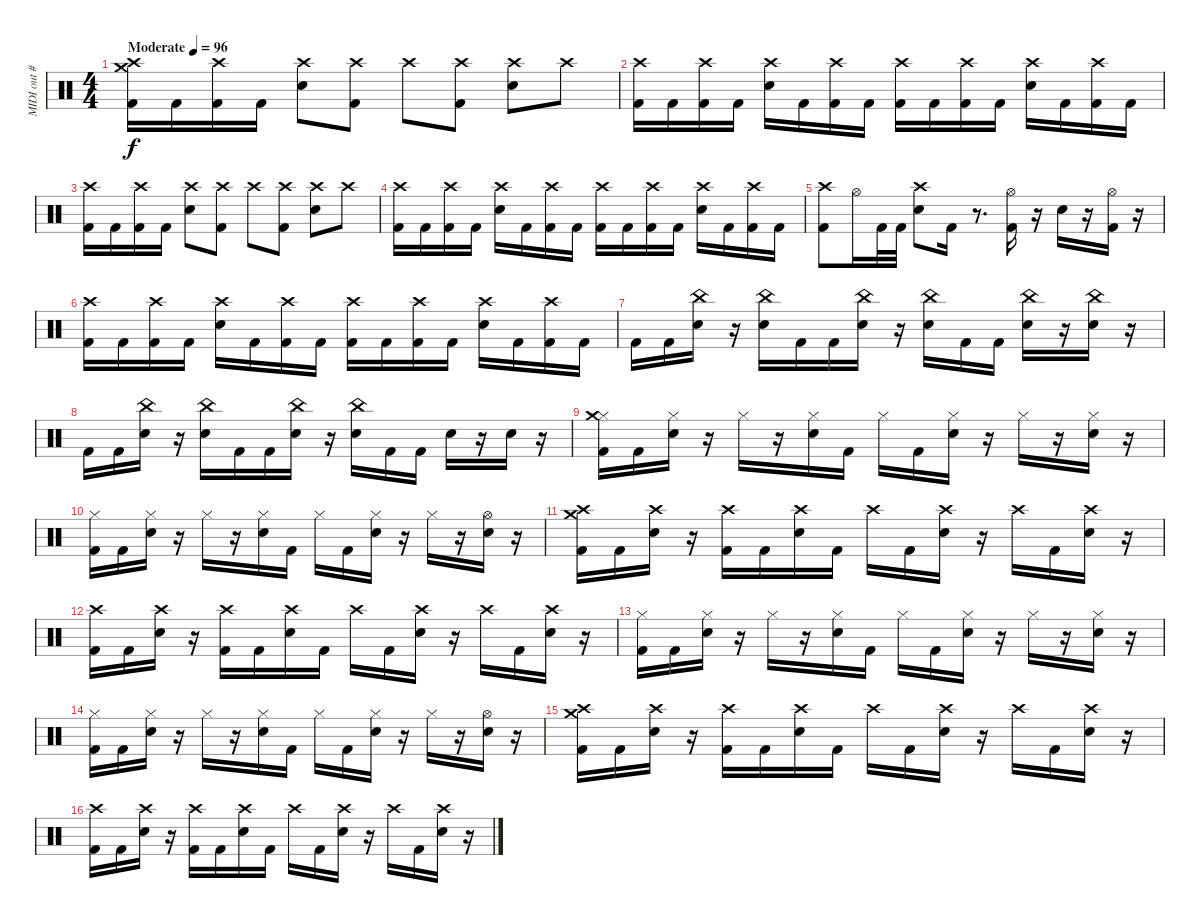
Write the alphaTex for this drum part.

\track ("MIDI out #3" "MIDI out #") {instrument percussion}
\staff {score}
\articulation defaults
\ts (4 4)
\tempo (96 "Moderate")
\clef neutral
\ks c
("Crash high (hit)" "Kick (hit) 2" "Crash medium (hit)").16{dy f} "Kick (hit) 2".16 ("Crash high (hit)" "Kick (hit) 2").16 "Kick (hit) 2".16 ("Crash high (hit)" "Snare (hit) 2").8 ("Crash high (hit)" "Kick (hit) 2").8 "Crash high (hit)".8 ("Crash high (hit)" "Kick (hit) 2").8 ("Crash high (hit)" "Snare (hit) 2").8 "Crash high (hit)".8 |
("Crash high (hit)" "Kick (hit) 2").16 "Kick (hit) 2".16 ("Crash high (hit)" "Kick (hit) 2").16 "Kick (hit) 2".16 ("Crash high (hit)" "Snare (hit) 2").16 "Kick (hit) 2".16 ("Crash high (hit)" "Kick (hit) 2").16 "Kick (hit) 2".16 ("Crash high (hit)" "Kick (hit) 2").16 "Kick (hit) 2".16 ("Crash high (hit)" "Kick (hit) 2").16 "Kick (hit) 2".16 ("Crash high (hit)" "Snare (hit) 2").16 "Kick (hit) 2".16 ("Crash high (hit)" "Kick (hit) 2").16 "Kick (hit) 2".16 |
("Crash high (hit)" "Kick (hit) 2").16 "Kick (hit) 2".16 ("Crash high (hit)" "Kick (hit) 2").16 "Kick (hit) 2".16 ("Crash high (hit)" "Snare (hit) 2").8 ("Crash high (hit)" "Kick (hit) 2").8 "Crash high (hit)".8 ("Crash high (hit)" "Kick (hit) 2").8 ("Crash high (hit)" "Snare (hit) 2").8 "Crash high (hit)".8 |
("Kick (hit) 2" "Crash high (hit)").16 "Kick (hit) 2".16 ("Crash high (hit)" "Kick (hit) 2").16 "Kick (hit) 2".16 ("Snare (hit) 2" "Crash high (hit)").16 "Kick (hit) 2".16 ("Crash high (hit)" "Kick (hit) 2").16 "Kick (hit) 2".16 ("Kick (hit) 2" "Crash high (hit)").16 "Kick (hit) 2".16 ("Crash high (hit)" "Kick (hit) 2").16 "Kick (hit) 2".16 ("Snare (hit) 2" "Crash high (hit)").16 "Kick (hit) 2".16 ("Crash high (hit)" "Kick (hit) 2").16 "Kick (hit) 2".16 |
("Crash high (hit)" "Kick (hit) 2").8 "Hi-Hat (open)".16 "Kick (hit) 2".32 "Kick (hit) 2".32 ("Crash high (hit)" "Snare (hit) 2").8 "Kick (hit) 2".16 r.8{d} ("Hi-Hat (open)" "Kick (hit) 2").16 r.16 "Snare (hit) 2".16 r.16 ("Hi-Hat (open)" "Kick (hit) 2").16 r.16 |
("Crash high (hit)" "Kick (hit) 2").16 "Kick (hit) 2".16 ("Crash high (hit)" "Kick (hit) 2").16 "Kick (hit) 2".16 ("Crash high (hit)" "Snare (hit) 2").16 "Kick (hit) 2".16 ("Crash high (hit)" "Kick (hit) 2").16 "Kick (hit) 2".16 ("Crash high (hit)" "Kick (hit) 2").16 "Kick (hit) 2".16 ("Crash high (hit)" "Kick (hit) 2").16 "Kick (hit) 2".16 ("Crash high (hit)" "Snare (hit) 2").16 "Kick (hit) 2".16 ("Crash high (hit)" "Kick (hit) 2").16 "Kick (hit) 2".16 |
"Kick (hit) 2".16 "Kick (hit) 2".16 ("Snare (hit) 2" "China (hit)").16 r.16 ("Snare (hit) 2" "China (hit)").16 "Kick (hit) 2".16 "Kick (hit) 2".16 ("Snare (hit) 2" "China (hit)").16 r.16 ("Snare (hit) 2" "China (hit)").16 "Kick (hit) 2".16 "Kick (hit) 2".16 ("Snare (hit) 2" "China (hit)").16 r.16 ("Snare (hit) 2" "China (hit)").16 r.16 |
"Kick (hit) 2".16 "Kick (hit) 2".16 ("Snare (hit) 2" "China (hit)").16 r.16 ("Snare (hit) 2" "China (hit)").16 "Kick (hit) 2".16 "Kick (hit) 2".16 ("Snare (hit) 2" "China (hit)").16 r.16 ("Snare (hit) 2" "China (hit)").16 "Kick (hit) 2".16 "Kick (hit) 2".16 "Snare (hit) 2".16 r.16 "Snare (hit) 2".16 r.16 |
("Hi-Hat (closed)" "Kick (hit) 2" "Crash medium (hit)").16 "Kick (hit) 2".16 ("Snare (hit) 2" "Hi-Hat (closed)").16 r.16 "Hi-Hat (closed)".16 r.16 ("Snare (hit) 2" "Hi-Hat (closed)").16 "Kick (hit) 2".16 "Hi-Hat (closed)".16 "Kick (hit) 2".16 ("Snare (hit) 2" "Hi-Hat (closed)").16 r.16 "Hi-Hat (closed)".16 r.16 ("Snare (hit) 2" "Hi-Hat (closed)").16 r.16 |
("Hi-Hat (closed)" "Kick (hit) 2").16 "Kick (hit) 2".16 ("Hi-Hat (closed)" "Snare (hit) 2").16 r.16 "Hi-Hat (closed)".16 r.16 ("Hi-Hat (closed)" "Snare (hit) 2").16 "Kick (hit) 2".16 "Hi-Hat (closed)".16 "Kick (hit) 2".16 ("Hi-Hat (closed)" "Snare (hit) 2").16 r.16 "Hi-Hat (closed)".16 r.16 ("Hi-Hat (open)" "Snare (hit) 2").16 r.16 |
("Crash high (hit)" "Kick (hit) 2" "Crash medium (hit)").16 "Kick (hit) 2".16 ("Crash high (hit)" "Snare (hit) 2").16 r.16 ("Crash high (hit)" "Kick (hit) 2").16 "Kick (hit) 2".16 ("Crash high (hit)" "Snare (hit) 2").16 "Kick (hit) 2".16 "Crash high (hit)".16 "Kick (hit) 2".16 ("Crash high (hit)" "Snare (hit) 2").16 r.16 "Crash high (hit)".16 "Kick (hit) 2".16 ("Crash high (hit)" "Snare (hit) 2").16 r.16 |
("Crash high (hit)" "Kick (hit) 2").16 "Kick (hit) 2".16 ("Crash high (hit)" "Snare (hit) 2").16 r.16 ("Crash high (hit)" "Kick (hit) 2").16 "Kick (hit) 2".16 ("Crash high (hit)" "Snare (hit) 2").16 "Kick (hit) 2".16 "Crash high (hit)".16 "Kick (hit) 2".16 ("Crash high (hit)" "Snare (hit) 2").16 r.16 "Crash high (hit)".16 "Kick (hit) 2".16 ("Crash high (hit)" "Snare (hit) 2").16 r.16 |
("Hi-Hat (closed)" "Kick (hit) 2").16 "Kick (hit) 2".16 ("Snare (hit) 2" "Hi-Hat (closed)").16 r.16 "Hi-Hat (closed)".16 r.16 ("Snare (hit) 2" "Hi-Hat (closed)").16 "Kick (hit) 2".16 "Hi-Hat (closed)".16 "Kick (hit) 2".16 ("Snare (hit) 2" "Hi-Hat (closed)").16 r.16 "Hi-Hat (closed)".16 r.16 ("Snare (hit) 2" "Hi-Hat (closed)").16 r.16 |
("Hi-Hat (closed)" "Kick (hit) 2").16 "Kick (hit) 2".16 ("Hi-Hat (closed)" "Snare (hit) 2").16 r.16 "Hi-Hat (closed)".16 r.16 ("Hi-Hat (closed)" "Snare (hit) 2").16 "Kick (hit) 2".16 "Hi-Hat (closed)".16 "Kick (hit) 2".16 ("Hi-Hat (closed)" "Snare (hit) 2").16 r.16 "Hi-Hat (closed)".16 r.16 ("Hi-Hat (open)" "Snare (hit) 2").16 r.16 |
("Crash medium (hit)" "Crash high (hit)" "Kick (hit) 2").16 "Kick (hit) 2".16 ("Crash high (hit)" "Snare (hit) 2").16 r.16 ("Crash high (hit)" "Kick (hit) 2").16 "Kick (hit) 2".16 ("Crash high (hit)" "Snare (hit) 2").16 "Kick (hit) 2".16 "Crash high (hit)".16 "Kick (hit) 2".16 ("Crash high (hit)" "Snare (hit) 2").16 r.16 "Crash high (hit)".16 "Kick (hit) 2".16 ("Crash high (hit)" "Snare (hit) 2").16 r.16 |
("Crash high (hit)" "Kick (hit) 2").16 "Kick (hit) 2".16 ("Crash high (hit)" "Snare (hit) 2").16 r.16 ("Crash high (hit)" "Kick (hit) 2").16 "Kick (hit) 2".16 ("Crash high (hit)" "Snare (hit) 2").16 "Kick (hit) 2".16 "Crash high (hit)".16 "Kick (hit) 2".16 ("Crash high (hit)" "Snare (hit) 2").16 r.16 "Crash high (hit)".16 "Kick (hit) 2".16 ("Crash high (hit)" "Snare (hit) 2").16 r.16
